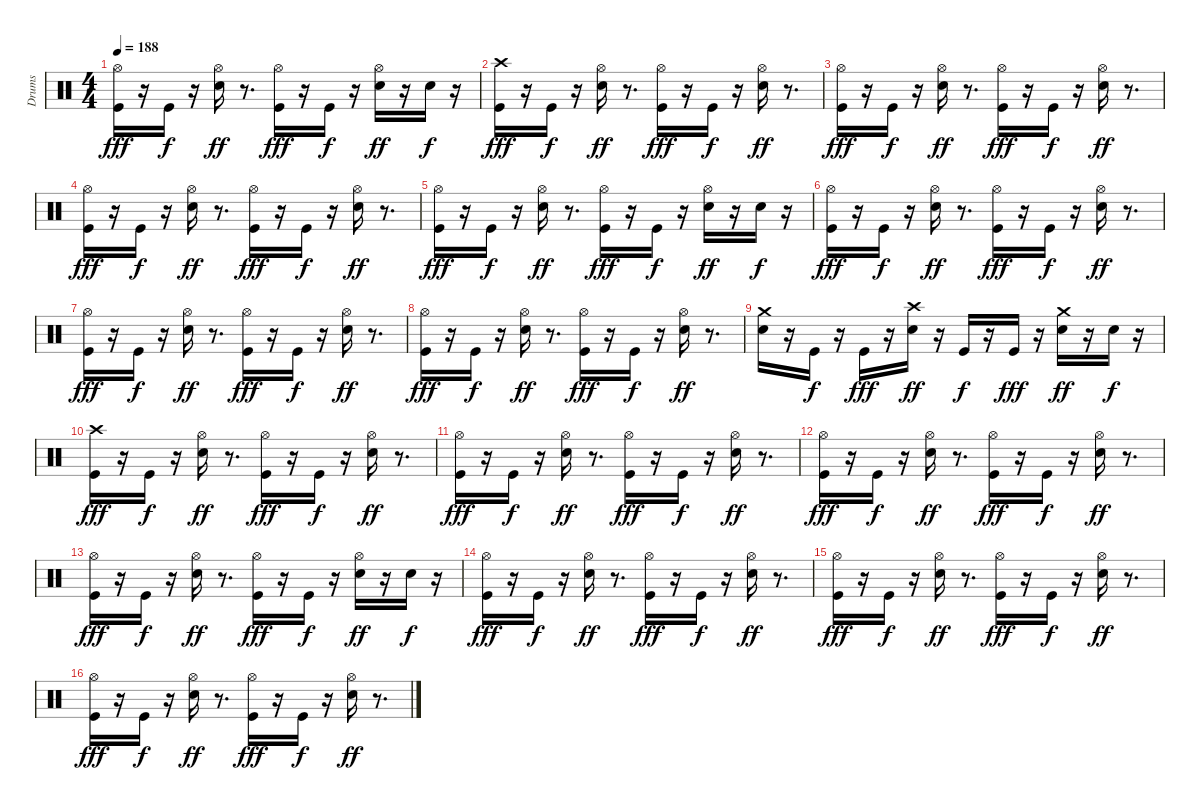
\track ("Drums" "Drums") {instrument percussion}
\staff {score}
\articulation defaults
\ts (4 4)
\tempo 188
\clef neutral
\ks c
("Hi-Hat (open)" "Kick (hit)").16{dy fff} r.16 "Kick (hit)".16{dy f} r.16 ("Hi-Hat (open)" "Electric Snare (hit)").16{dy ff} r.8{d} ("Hi-Hat (open)" "Kick (hit)").16{dy fff} r.16 "Kick (hit)".16{dy f} r.16 ("Electric Snare (hit)" "Hi-Hat (open)").16{dy ff} r.16 "Electric Snare (hit)".16{dy f} r.16 |
("Crash high (hit)" "Kick (hit)").16{dy fff} r.16 "Kick (hit)".16{dy f} r.16 ("Hi-Hat (open)" "Electric Snare (hit)").16{dy ff} r.8{d} ("Hi-Hat (open)" "Kick (hit)").16{dy fff} r.16 "Kick (hit)".16{dy f} r.16 ("Hi-Hat (open)" "Electric Snare (hit)").16{dy ff} r.8{d} |
("Hi-Hat (open)" "Kick (hit)").16{dy fff} r.16 "Kick (hit)".16{dy f} r.16 ("Hi-Hat (open)" "Electric Snare (hit)").16{dy ff} r.8{d} ("Hi-Hat (open)" "Kick (hit)").16{dy fff} r.16 "Kick (hit)".16{dy f} r.16 ("Hi-Hat (open)" "Electric Snare (hit)").16{dy ff} r.8{d} |
("Hi-Hat (open)" "Kick (hit)").16{dy fff} r.16 "Kick (hit)".16{dy f} r.16 ("Hi-Hat (open)" "Electric Snare (hit)").16{dy ff} r.8{d} ("Hi-Hat (open)" "Kick (hit)").16{dy fff} r.16 "Kick (hit)".16{dy f} r.16 ("Hi-Hat (open)" "Electric Snare (hit)").16{dy ff} r.8{d} |
("Hi-Hat (open)" "Kick (hit)").16{dy fff} r.16 "Kick (hit)".16{dy f} r.16 ("Hi-Hat (open)" "Electric Snare (hit)").16{dy ff} r.8{d} ("Hi-Hat (open)" "Kick (hit)").16{dy fff} r.16 "Kick (hit)".16{dy f} r.16 ("Electric Snare (hit)" "Hi-Hat (open)").16{dy ff} r.16 "Electric Snare (hit)".16{dy f} r.16 |
("Hi-Hat (open)" "Kick (hit)").16{dy fff} r.16 "Kick (hit)".16{dy f} r.16 ("Hi-Hat (open)" "Electric Snare (hit)").16{dy ff} r.8{d} ("Hi-Hat (open)" "Kick (hit)").16{dy fff} r.16 "Kick (hit)".16{dy f} r.16 ("Hi-Hat (open)" "Electric Snare (hit)").16{dy ff} r.8{d} |
("Hi-Hat (open)" "Kick (hit)").16{dy fff} r.16 "Kick (hit)".16{dy f} r.16 ("Hi-Hat (open)" "Electric Snare (hit)").16{dy ff} r.8{d} ("Hi-Hat (open)" "Kick (hit)").16{dy fff} r.16 "Kick (hit)".16{dy f} r.16 ("Hi-Hat (open)" "Electric Snare (hit)").16{dy ff} r.8{d} |
("Hi-Hat (open)" "Kick (hit)").16{dy fff} r.16 "Kick (hit)".16{dy f} r.16 ("Hi-Hat (open)" "Electric Snare (hit)").16{dy ff} r.8{d} ("Hi-Hat (open)" "Kick (hit)").16{dy fff} r.16 "Kick (hit)".16{dy f} r.16 ("Hi-Hat (open)" "Electric Snare (hit)").16{dy ff} r.8{d} |
("Electric Snare (hit)" "Crash medium (hit)").16 r.16 "Kick (hit)".16{dy f} r.16 "Kick (hit)".16{dy fff} r.16 ("Crash high (hit)" "Electric Snare (hit)").16{dy ff} r.16 "Kick (hit)".16{dy f} r.16 "Kick (hit)".16{dy fff} r.16 ("Crash medium (hit)" "Electric Snare (hit)").16{dy ff} r.16 "Electric Snare (hit)".16{dy f} r.16 |
("Crash high (hit)" "Kick (hit)").16{dy fff} r.16 "Kick (hit)".16{dy f} r.16 ("Hi-Hat (open)" "Electric Snare (hit)").16{dy ff} r.8{d} ("Hi-Hat (open)" "Kick (hit)").16{dy fff} r.16 "Kick (hit)".16{dy f} r.16 ("Hi-Hat (open)" "Electric Snare (hit)").16{dy ff} r.8{d} |
("Hi-Hat (open)" "Kick (hit)").16{dy fff} r.16 "Kick (hit)".16{dy f} r.16 ("Hi-Hat (open)" "Electric Snare (hit)").16{dy ff} r.8{d} ("Hi-Hat (open)" "Kick (hit)").16{dy fff} r.16 "Kick (hit)".16{dy f} r.16 ("Hi-Hat (open)" "Electric Snare (hit)").16{dy ff} r.8{d} |
("Hi-Hat (open)" "Kick (hit)").16{dy fff} r.16 "Kick (hit)".16{dy f} r.16 ("Hi-Hat (open)" "Electric Snare (hit)").16{dy ff} r.8{d} ("Hi-Hat (open)" "Kick (hit)").16{dy fff} r.16 "Kick (hit)".16{dy f} r.16 ("Hi-Hat (open)" "Electric Snare (hit)").16{dy ff} r.8{d} |
("Hi-Hat (open)" "Kick (hit)").16{dy fff} r.16 "Kick (hit)".16{dy f} r.16 ("Hi-Hat (open)" "Electric Snare (hit)").16{dy ff} r.8{d} ("Hi-Hat (open)" "Kick (hit)").16{dy fff} r.16 "Kick (hit)".16{dy f} r.16 ("Electric Snare (hit)" "Hi-Hat (open)").16{dy ff} r.16 "Electric Snare (hit)".16{dy f} r.16 |
("Hi-Hat (open)" "Kick (hit)").16{dy fff} r.16 "Kick (hit)".16{dy f} r.16 ("Hi-Hat (open)" "Electric Snare (hit)").16{dy ff} r.8{d} ("Hi-Hat (open)" "Kick (hit)").16{dy fff} r.16 "Kick (hit)".16{dy f} r.16 ("Hi-Hat (open)" "Electric Snare (hit)").16{dy ff} r.8{d} |
("Hi-Hat (open)" "Kick (hit)").16{dy fff} r.16 "Kick (hit)".16{dy f} r.16 ("Hi-Hat (open)" "Electric Snare (hit)").16{dy ff} r.8{d} ("Hi-Hat (open)" "Kick (hit)").16{dy fff} r.16 "Kick (hit)".16{dy f} r.16 ("Hi-Hat (open)" "Electric Snare (hit)").16{dy ff} r.8{d} |
("Hi-Hat (open)" "Kick (hit)").16{dy fff} r.16 "Kick (hit)".16{dy f} r.16 ("Hi-Hat (open)" "Electric Snare (hit)").16{dy ff} r.8{d} ("Hi-Hat (open)" "Kick (hit)").16{dy fff} r.16 "Kick (hit)".16{dy f} r.16 ("Hi-Hat (open)" "Electric Snare (hit)").16{dy ff} r.8{d}
